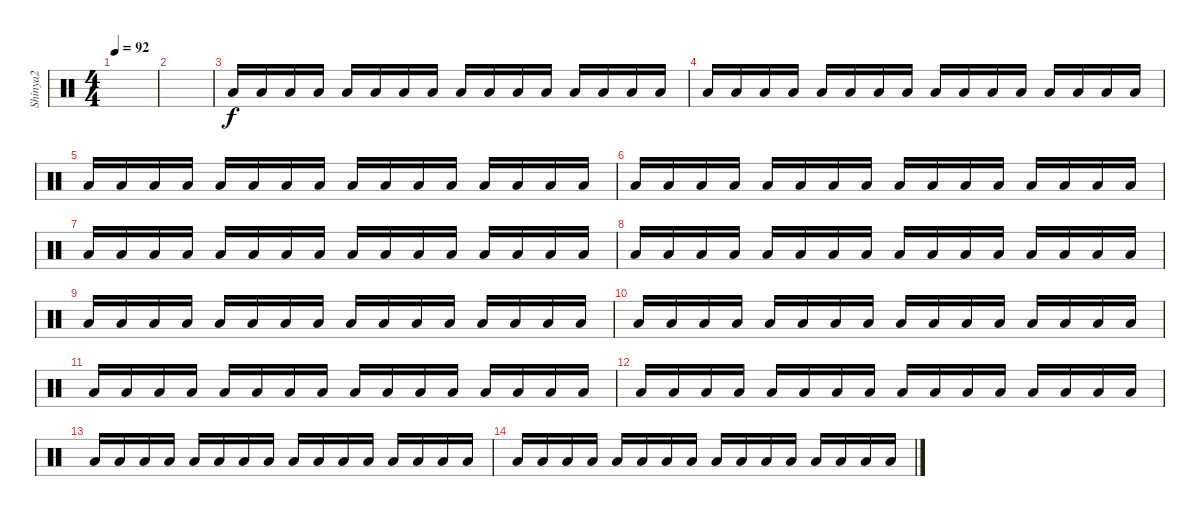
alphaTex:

\track ("Shinya2" "Shinya2") {instrument percussion}
\staff {score}
\articulation defaults
\ts (4 4)
\tempo 92
\clef neutral
\ks c
|
|
"Low Tom (hit)".16 "Low Tom (hit)".16 "Low Tom (hit)".16 "Low Tom (hit)".16 "Low Tom (hit)".16 "Low Tom (hit)".16 "Low Tom (hit)".16 "Low Tom (hit)".16 "Low Tom (hit)".16 "Low Tom (hit)".16 "Low Tom (hit)".16 "Low Tom (hit)".16 "Low Tom (hit)".16 "Low Tom (hit)".16 "Low Tom (hit)".16 "Low Tom (hit)".16 |
"Low Tom (hit)".16 "Low Tom (hit)".16 "Low Tom (hit)".16 "Low Tom (hit)".16 "Low Tom (hit)".16 "Low Tom (hit)".16 "Low Tom (hit)".16 "Low Tom (hit)".16 "Low Tom (hit)".16 "Low Tom (hit)".16 "Low Tom (hit)".16 "Low Tom (hit)".16 "Low Tom (hit)".16 "Low Tom (hit)".16 "Low Tom (hit)".16 "Low Tom (hit)".16 |
"Low Tom (hit)".16 "Low Tom (hit)".16 "Low Tom (hit)".16 "Low Tom (hit)".16 "Low Tom (hit)".16 "Low Tom (hit)".16 "Low Tom (hit)".16 "Low Tom (hit)".16 "Low Tom (hit)".16 "Low Tom (hit)".16 "Low Tom (hit)".16 "Low Tom (hit)".16 "Low Tom (hit)".16 "Low Tom (hit)".16 "Low Tom (hit)".16 "Low Tom (hit)".16 |
"Low Tom (hit)".16 "Low Tom (hit)".16 "Low Tom (hit)".16 "Low Tom (hit)".16 "Low Tom (hit)".16 "Low Tom (hit)".16 "Low Tom (hit)".16 "Low Tom (hit)".16 "Low Tom (hit)".16 "Low Tom (hit)".16 "Low Tom (hit)".16 "Low Tom (hit)".16 "Low Tom (hit)".16 "Low Tom (hit)".16 "Low Tom (hit)".16 "Low Tom (hit)".16 |
"Low Tom (hit)".16 "Low Tom (hit)".16 "Low Tom (hit)".16 "Low Tom (hit)".16 "Low Tom (hit)".16 "Low Tom (hit)".16 "Low Tom (hit)".16 "Low Tom (hit)".16 "Low Tom (hit)".16 "Low Tom (hit)".16 "Low Tom (hit)".16 "Low Tom (hit)".16 "Low Tom (hit)".16 "Low Tom (hit)".16 "Low Tom (hit)".16 "Low Tom (hit)".16 |
"Low Tom (hit)".16 "Low Tom (hit)".16 "Low Tom (hit)".16 "Low Tom (hit)".16 "Low Tom (hit)".16 "Low Tom (hit)".16 "Low Tom (hit)".16 "Low Tom (hit)".16 "Low Tom (hit)".16 "Low Tom (hit)".16 "Low Tom (hit)".16 "Low Tom (hit)".16 "Low Tom (hit)".16 "Low Tom (hit)".16 "Low Tom (hit)".16 "Low Tom (hit)".16 |
"Low Tom (hit)".16 "Low Tom (hit)".16 "Low Tom (hit)".16 "Low Tom (hit)".16 "Low Tom (hit)".16 "Low Tom (hit)".16 "Low Tom (hit)".16 "Low Tom (hit)".16 "Low Tom (hit)".16 "Low Tom (hit)".16 "Low Tom (hit)".16 "Low Tom (hit)".16 "Low Tom (hit)".16 "Low Tom (hit)".16 "Low Tom (hit)".16 "Low Tom (hit)".16 |
"Low Tom (hit)".16 "Low Tom (hit)".16 "Low Tom (hit)".16 "Low Tom (hit)".16 "Low Tom (hit)".16 "Low Tom (hit)".16 "Low Tom (hit)".16 "Low Tom (hit)".16 "Low Tom (hit)".16 "Low Tom (hit)".16 "Low Tom (hit)".16 "Low Tom (hit)".16 "Low Tom (hit)".16 "Low Tom (hit)".16 "Low Tom (hit)".16 "Low Tom (hit)".16 |
"Low Tom (hit)".16 "Low Tom (hit)".16 "Low Tom (hit)".16 "Low Tom (hit)".16 "Low Tom (hit)".16 "Low Tom (hit)".16 "Low Tom (hit)".16 "Low Tom (hit)".16 "Low Tom (hit)".16 "Low Tom (hit)".16 "Low Tom (hit)".16 "Low Tom (hit)".16 "Low Tom (hit)".16 "Low Tom (hit)".16 "Low Tom (hit)".16 "Low Tom (hit)".16 |
"Low Tom (hit)".16 "Low Tom (hit)".16 "Low Tom (hit)".16 "Low Tom (hit)".16 "Low Tom (hit)".16 "Low Tom (hit)".16 "Low Tom (hit)".16 "Low Tom (hit)".16 "Low Tom (hit)".16 "Low Tom (hit)".16 "Low Tom (hit)".16 "Low Tom (hit)".16 "Low Tom (hit)".16 "Low Tom (hit)".16 "Low Tom (hit)".16 "Low Tom (hit)".16 |
"Low Tom (hit)".16 "Low Tom (hit)".16 "Low Tom (hit)".16 "Low Tom (hit)".16 "Low Tom (hit)".16 "Low Tom (hit)".16 "Low Tom (hit)".16 "Low Tom (hit)".16 "Low Tom (hit)".16 "Low Tom (hit)".16 "Low Tom (hit)".16 "Low Tom (hit)".16 "Low Tom (hit)".16 "Low Tom (hit)".16 "Low Tom (hit)".16 "Low Tom (hit)".16 |
"Low Tom (hit)".16 "Low Tom (hit)".16 "Low Tom (hit)".16 "Low Tom (hit)".16 "Low Tom (hit)".16 "Low Tom (hit)".16 "Low Tom (hit)".16 "Low Tom (hit)".16 "Low Tom (hit)".16 "Low Tom (hit)".16 "Low Tom (hit)".16 "Low Tom (hit)".16 "Low Tom (hit)".16 "Low Tom (hit)".16 "Low Tom (hit)".16 "Low Tom (hit)".16
